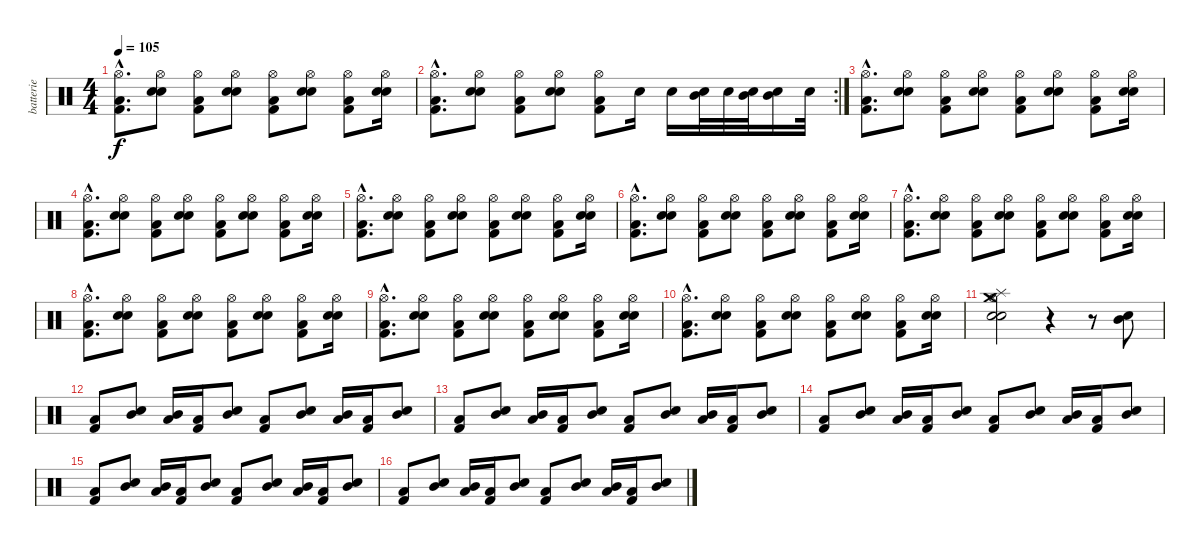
\track ("batterie" "batterie") {instrument percussion}
\staff {score}
\articulation defaults
\ts (4 4)
\tempo 105
\clef neutral
\ks c
("Kick (hit) 2"{hac} "Low Floor Tom (hit)"{hac} "Hi-Hat (open)"{hac}).8{d dy f} ("Electric Snare (hit)" "Snare (hit) 2" "Hi-Hat (open)").8 ("Kick (hit) 2" "Low Floor Tom (hit)" "Hi-Hat (open)").8 ("Electric Snare (hit)" "Snare (hit) 2" "Hi-Hat (open)").8 ("Kick (hit) 2" "Low Floor Tom (hit)" "Hi-Hat (open)").8 ("Electric Snare (hit)" "Snare (hit) 2" "Hi-Hat (open)").8 ("Kick (hit) 2" "Low Floor Tom (hit)" "Hi-Hat (open)").8 ("Electric Snare (hit)" "Snare (hit) 2" "Hi-Hat (open)").16 |
\rc 2
("Kick (hit) 2"{hac} "Low Floor Tom (hit)"{hac} "Hi-Hat (open)"{hac}).8{d} ("Electric Snare (hit)" "Snare (hit) 2" "Hi-Hat (open)").8 ("Kick (hit) 2" "Low Floor Tom (hit)" "Hi-Hat (open)").8 ("Electric Snare (hit)" "Snare (hit) 2" "Hi-Hat (open)").8 ("Kick (hit) 2" "Low Floor Tom (hit)" "Hi-Hat (open)").8 "Electric Snare (hit)".16 "Electric Snare (hit)".16 ("Electric Snare (hit)" "Mid Tom (hit)").32 "Electric Snare (hit)".32 ("Electric Snare (hit)" "Mid Tom (hit)").32 ("Electric Snare (hit)" "Mid Tom (hit)").16 "Electric Snare (hit)".32 |
("Kick (hit) 2"{hac} "Low Floor Tom (hit)"{hac} "Hi-Hat (open)"{hac}).8{d} ("Electric Snare (hit)" "Snare (hit) 2" "Hi-Hat (open)").8 ("Kick (hit) 2" "Low Floor Tom (hit)" "Hi-Hat (open)").8 ("Electric Snare (hit)" "Snare (hit) 2" "Hi-Hat (open)").8 ("Kick (hit) 2" "Low Floor Tom (hit)" "Hi-Hat (open)").8 ("Electric Snare (hit)" "Snare (hit) 2" "Hi-Hat (open)").8 ("Kick (hit) 2" "Low Floor Tom (hit)" "Hi-Hat (open)").8 ("Electric Snare (hit)" "Snare (hit) 2" "Hi-Hat (open)").16 |
("Kick (hit) 2"{hac} "Low Floor Tom (hit)"{hac} "Hi-Hat (open)"{hac}).8{d} ("Electric Snare (hit)" "Snare (hit) 2" "Hi-Hat (open)").8 ("Kick (hit) 2" "Low Floor Tom (hit)" "Hi-Hat (open)").8 ("Electric Snare (hit)" "Snare (hit) 2" "Hi-Hat (open)").8 ("Kick (hit) 2" "Low Floor Tom (hit)" "Hi-Hat (open)").8 ("Electric Snare (hit)" "Snare (hit) 2" "Hi-Hat (open)").8 ("Kick (hit) 2" "Low Floor Tom (hit)" "Hi-Hat (open)").8 ("Electric Snare (hit)" "Snare (hit) 2" "Hi-Hat (open)").16 |
("Kick (hit) 2"{hac} "Low Floor Tom (hit)"{hac} "Hi-Hat (open)"{hac}).8{d} ("Electric Snare (hit)" "Snare (hit) 2" "Hi-Hat (open)").8 ("Kick (hit) 2" "Low Floor Tom (hit)" "Hi-Hat (open)").8 ("Electric Snare (hit)" "Snare (hit) 2" "Hi-Hat (open)").8 ("Kick (hit) 2" "Low Floor Tom (hit)" "Hi-Hat (open)").8 ("Electric Snare (hit)" "Snare (hit) 2" "Hi-Hat (open)").8 ("Kick (hit) 2" "Low Floor Tom (hit)" "Hi-Hat (open)").8 ("Electric Snare (hit)" "Snare (hit) 2" "Hi-Hat (open)").16 |
("Kick (hit) 2"{hac} "Low Floor Tom (hit)"{hac} "Hi-Hat (open)"{hac}).8{d} ("Electric Snare (hit)" "Snare (hit) 2" "Hi-Hat (open)").8 ("Kick (hit) 2" "Low Floor Tom (hit)" "Hi-Hat (open)").8 ("Electric Snare (hit)" "Snare (hit) 2" "Hi-Hat (open)").8 ("Kick (hit) 2" "Low Floor Tom (hit)" "Hi-Hat (open)").8 ("Electric Snare (hit)" "Snare (hit) 2" "Hi-Hat (open)").8 ("Kick (hit) 2" "Low Floor Tom (hit)" "Hi-Hat (open)").8 ("Electric Snare (hit)" "Snare (hit) 2" "Hi-Hat (open)").16 |
("Kick (hit) 2"{hac} "Low Floor Tom (hit)"{hac} "Hi-Hat (open)"{hac}).8{d} ("Electric Snare (hit)" "Snare (hit) 2" "Hi-Hat (open)").8 ("Kick (hit) 2" "Low Floor Tom (hit)" "Hi-Hat (open)").8 ("Electric Snare (hit)" "Snare (hit) 2" "Hi-Hat (open)").8 ("Kick (hit) 2" "Low Floor Tom (hit)" "Hi-Hat (open)").8 ("Electric Snare (hit)" "Snare (hit) 2" "Hi-Hat (open)").8 ("Kick (hit) 2" "Low Floor Tom (hit)" "Hi-Hat (open)").8 ("Electric Snare (hit)" "Snare (hit) 2" "Hi-Hat (open)").16 |
("Kick (hit) 2"{hac} "Low Floor Tom (hit)"{hac} "Hi-Hat (open)"{hac}).8{d} ("Electric Snare (hit)" "Snare (hit) 2" "Hi-Hat (open)").8 ("Kick (hit) 2" "Low Floor Tom (hit)" "Hi-Hat (open)").8 ("Electric Snare (hit)" "Snare (hit) 2" "Hi-Hat (open)").8 ("Kick (hit) 2" "Low Floor Tom (hit)" "Hi-Hat (open)").8 ("Electric Snare (hit)" "Snare (hit) 2" "Hi-Hat (open)").8 ("Kick (hit) 2" "Low Floor Tom (hit)" "Hi-Hat (open)").8 ("Electric Snare (hit)" "Snare (hit) 2" "Hi-Hat (open)").16 |
("Kick (hit) 2"{hac} "Low Floor Tom (hit)"{hac} "Hi-Hat (open)"{hac}).8{d} ("Electric Snare (hit)" "Snare (hit) 2" "Hi-Hat (open)").8 ("Kick (hit) 2" "Low Floor Tom (hit)" "Hi-Hat (open)").8 ("Electric Snare (hit)" "Snare (hit) 2" "Hi-Hat (open)").8 ("Kick (hit) 2" "Low Floor Tom (hit)" "Hi-Hat (open)").8 ("Electric Snare (hit)" "Snare (hit) 2" "Hi-Hat (open)").8 ("Kick (hit) 2" "Low Floor Tom (hit)" "Hi-Hat (open)").8 ("Electric Snare (hit)" "Snare (hit) 2" "Hi-Hat (open)").16 |
("Kick (hit) 2"{hac} "Low Floor Tom (hit)"{hac} "Hi-Hat (open)"{hac}).8{d} ("Electric Snare (hit)" "Snare (hit) 2" "Hi-Hat (open)").8 ("Kick (hit) 2" "Low Floor Tom (hit)" "Hi-Hat (open)").8 ("Electric Snare (hit)" "Snare (hit) 2" "Hi-Hat (open)").8 ("Kick (hit) 2" "Low Floor Tom (hit)" "Hi-Hat (open)").8 ("Electric Snare (hit)" "Snare (hit) 2" "Hi-Hat (open)").8 ("Kick (hit) 2" "Low Floor Tom (hit)" "Hi-Hat (open)").8 ("Electric Snare (hit)" "Snare (hit) 2" "Hi-Hat (open)").16 |
("Crash medium (hit)" "Electric Snare (hit)" "Snare (hit) 2" "Hi-Hat (open)" "Splash (hit)").2 r.4 r.8 ("Mid Tom (hit)" "Snare (hit) 2").8 |
("Kick (hit) 2" "Low Floor Tom (hit)").8 ("Mid Tom (hit)" "Snare (hit) 2").8 ("Mid Tom (hit)" "Low Floor Tom (hit)").16 ("Kick (hit) 2" "Low Floor Tom (hit)").16 ("Mid Tom (hit)" "Snare (hit) 2").8 ("Kick (hit) 2" "Low Floor Tom (hit)").8 ("Mid Tom (hit)" "Snare (hit) 2").8 ("Mid Tom (hit)" "Low Floor Tom (hit)").16 ("Kick (hit) 2" "Low Floor Tom (hit)").16 ("Mid Tom (hit)" "Snare (hit) 2").8 |
("Kick (hit) 2" "Low Floor Tom (hit)").8 ("Mid Tom (hit)" "Snare (hit) 2").8 ("Mid Tom (hit)" "Low Floor Tom (hit)").16 ("Kick (hit) 2" "Low Floor Tom (hit)").16 ("Mid Tom (hit)" "Snare (hit) 2").8 ("Kick (hit) 2" "Low Floor Tom (hit)").8 ("Mid Tom (hit)" "Snare (hit) 2").8 ("Mid Tom (hit)" "Low Floor Tom (hit)").16 ("Kick (hit) 2" "Low Floor Tom (hit)").16 ("Mid Tom (hit)" "Snare (hit) 2").8 |
("Kick (hit) 2" "Low Floor Tom (hit)").8 ("Mid Tom (hit)" "Snare (hit) 2").8 ("Mid Tom (hit)" "Low Floor Tom (hit)").16 ("Kick (hit) 2" "Low Floor Tom (hit)").16 ("Mid Tom (hit)" "Snare (hit) 2").8 ("Kick (hit) 2" "Low Floor Tom (hit)").8 ("Mid Tom (hit)" "Snare (hit) 2").8 ("Mid Tom (hit)" "Low Floor Tom (hit)").16 ("Kick (hit) 2" "Low Floor Tom (hit)").16 ("Mid Tom (hit)" "Snare (hit) 2").8 |
("Kick (hit) 2" "Low Floor Tom (hit)").8 ("Mid Tom (hit)" "Snare (hit) 2").8 ("Mid Tom (hit)" "Low Floor Tom (hit)").16 ("Kick (hit) 2" "Low Floor Tom (hit)").16 ("Mid Tom (hit)" "Snare (hit) 2").8 ("Kick (hit) 2" "Low Floor Tom (hit)").8 ("Mid Tom (hit)" "Snare (hit) 2").8 ("Mid Tom (hit)" "Low Floor Tom (hit)").16 ("Kick (hit) 2" "Low Floor Tom (hit)").16 ("Mid Tom (hit)" "Snare (hit) 2").8 |
("Kick (hit) 2" "Low Floor Tom (hit)").8 ("Mid Tom (hit)" "Snare (hit) 2").8 ("Mid Tom (hit)" "Low Floor Tom (hit)").16 ("Kick (hit) 2" "Low Floor Tom (hit)").16 ("Mid Tom (hit)" "Snare (hit) 2").8 ("Kick (hit) 2" "Low Floor Tom (hit)").8 ("Mid Tom (hit)" "Snare (hit) 2").8 ("Mid Tom (hit)" "Low Floor Tom (hit)").16 ("Kick (hit) 2" "Low Floor Tom (hit)").16 ("Mid Tom (hit)" "Snare (hit) 2").8
